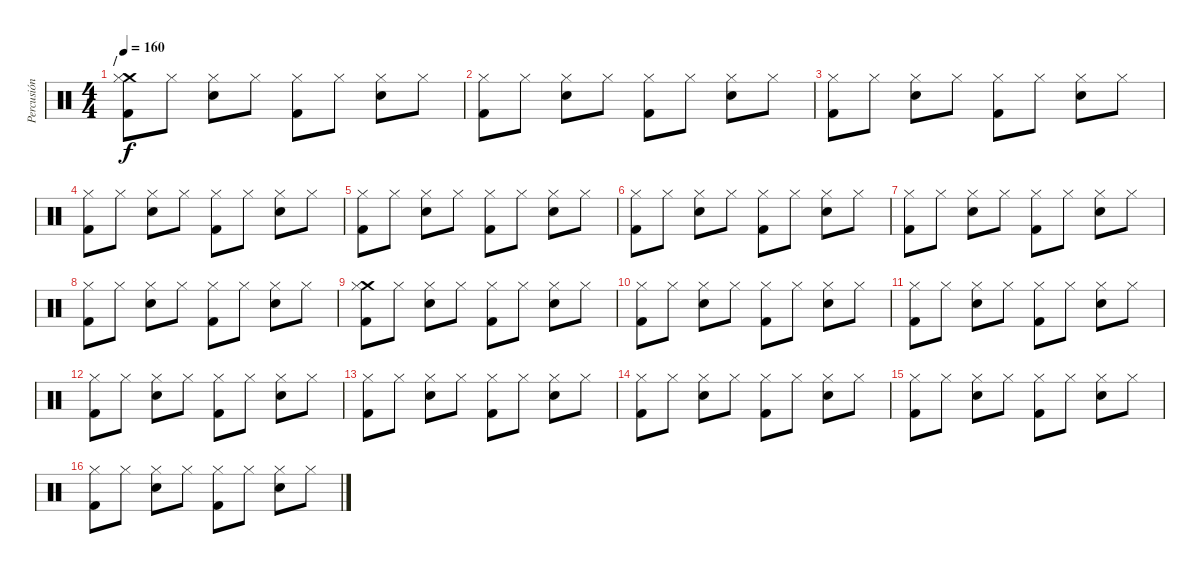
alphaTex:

\track ("Percusión" "Percusión") {instrument percussion}
\staff {score}
\articulation defaults
\ts (4 4)
\section ("" "/")
\tempo 160
\clef neutral
\ks c
("Crash medium (hit)" "Hi-Hat (closed)" "Kick (hit) 2").8{dy f} "Hi-Hat (closed)".8 ("Hi-Hat (closed)" "Snare (hit) 2").8 "Hi-Hat (closed)".8 ("Hi-Hat (closed)" "Kick (hit) 2").8 "Hi-Hat (closed)".8 ("Hi-Hat (closed)" "Snare (hit) 2").8 "Hi-Hat (closed)".8 |
("Hi-Hat (closed)" "Kick (hit) 2").8 "Hi-Hat (closed)".8 ("Hi-Hat (closed)" "Snare (hit) 2").8 "Hi-Hat (closed)".8 ("Hi-Hat (closed)" "Kick (hit) 2").8 "Hi-Hat (closed)".8 ("Hi-Hat (closed)" "Snare (hit) 2").8 "Hi-Hat (closed)".8 |
("Hi-Hat (closed)" "Kick (hit) 2").8 "Hi-Hat (closed)".8 ("Hi-Hat (closed)" "Snare (hit) 2").8 "Hi-Hat (closed)".8 ("Hi-Hat (closed)" "Kick (hit) 2").8 "Hi-Hat (closed)".8 ("Hi-Hat (closed)" "Snare (hit) 2").8 "Hi-Hat (closed)".8 |
("Hi-Hat (closed)" "Kick (hit) 2").8 "Hi-Hat (closed)".8 ("Hi-Hat (closed)" "Snare (hit) 2").8 "Hi-Hat (closed)".8 ("Hi-Hat (closed)" "Kick (hit) 2").8 "Hi-Hat (closed)".8 ("Hi-Hat (closed)" "Snare (hit) 2").8 "Hi-Hat (closed)".8 |
("Hi-Hat (closed)" "Kick (hit) 2").8 "Hi-Hat (closed)".8 ("Hi-Hat (closed)" "Snare (hit) 2").8 "Hi-Hat (closed)".8 ("Hi-Hat (closed)" "Kick (hit) 2").8 "Hi-Hat (closed)".8 ("Hi-Hat (closed)" "Snare (hit) 2").8 "Hi-Hat (closed)".8 |
("Hi-Hat (closed)" "Kick (hit) 2").8 "Hi-Hat (closed)".8 ("Hi-Hat (closed)" "Snare (hit) 2").8 "Hi-Hat (closed)".8 ("Hi-Hat (closed)" "Kick (hit) 2").8 "Hi-Hat (closed)".8 ("Hi-Hat (closed)" "Snare (hit) 2").8 "Hi-Hat (closed)".8 |
("Hi-Hat (closed)" "Kick (hit) 2").8 "Hi-Hat (closed)".8 ("Hi-Hat (closed)" "Snare (hit) 2").8 "Hi-Hat (closed)".8 ("Hi-Hat (closed)" "Kick (hit) 2").8 "Hi-Hat (closed)".8 ("Hi-Hat (closed)" "Snare (hit) 2").8 "Hi-Hat (closed)".8 |
("Hi-Hat (closed)" "Kick (hit) 2").8 "Hi-Hat (closed)".8 ("Hi-Hat (closed)" "Snare (hit) 2").8 "Hi-Hat (closed)".8 ("Hi-Hat (closed)" "Kick (hit) 2").8 "Hi-Hat (closed)".8 ("Hi-Hat (closed)" "Snare (hit) 2").8 "Hi-Hat (closed)".8 |
("Crash medium (hit)" "Hi-Hat (closed)" "Kick (hit) 2").8 "Hi-Hat (closed)".8 ("Hi-Hat (closed)" "Snare (hit) 2").8 "Hi-Hat (closed)".8 ("Hi-Hat (closed)" "Kick (hit) 2").8 "Hi-Hat (closed)".8 ("Hi-Hat (closed)" "Snare (hit) 2").8 "Hi-Hat (closed)".8 |
("Hi-Hat (closed)" "Kick (hit) 2").8 "Hi-Hat (closed)".8 ("Hi-Hat (closed)" "Snare (hit) 2").8 "Hi-Hat (closed)".8 ("Hi-Hat (closed)" "Kick (hit) 2").8 "Hi-Hat (closed)".8 ("Hi-Hat (closed)" "Snare (hit) 2").8 "Hi-Hat (closed)".8 |
("Hi-Hat (closed)" "Kick (hit) 2").8 "Hi-Hat (closed)".8 ("Hi-Hat (closed)" "Snare (hit) 2").8 "Hi-Hat (closed)".8 ("Hi-Hat (closed)" "Kick (hit) 2").8 "Hi-Hat (closed)".8 ("Hi-Hat (closed)" "Snare (hit) 2").8 "Hi-Hat (closed)".8 |
("Hi-Hat (closed)" "Kick (hit) 2").8 "Hi-Hat (closed)".8 ("Hi-Hat (closed)" "Snare (hit) 2").8 "Hi-Hat (closed)".8 ("Hi-Hat (closed)" "Kick (hit) 2").8 "Hi-Hat (closed)".8 ("Hi-Hat (closed)" "Snare (hit) 2").8 "Hi-Hat (closed)".8 |
("Hi-Hat (closed)" "Kick (hit) 2").8 "Hi-Hat (closed)".8 ("Hi-Hat (closed)" "Snare (hit) 2").8 "Hi-Hat (closed)".8 ("Hi-Hat (closed)" "Kick (hit) 2").8 "Hi-Hat (closed)".8 ("Hi-Hat (closed)" "Snare (hit) 2").8 "Hi-Hat (closed)".8 |
("Hi-Hat (closed)" "Kick (hit) 2").8 "Hi-Hat (closed)".8 ("Hi-Hat (closed)" "Snare (hit) 2").8 "Hi-Hat (closed)".8 ("Hi-Hat (closed)" "Kick (hit) 2").8 "Hi-Hat (closed)".8 ("Hi-Hat (closed)" "Snare (hit) 2").8 "Hi-Hat (closed)".8 |
("Hi-Hat (closed)" "Kick (hit) 2").8 "Hi-Hat (closed)".8 ("Hi-Hat (closed)" "Snare (hit) 2").8 "Hi-Hat (closed)".8 ("Hi-Hat (closed)" "Kick (hit) 2").8 "Hi-Hat (closed)".8 ("Hi-Hat (closed)" "Snare (hit) 2").8 "Hi-Hat (closed)".8 |
("Hi-Hat (closed)" "Kick (hit) 2").8 "Hi-Hat (closed)".8 ("Hi-Hat (closed)" "Snare (hit) 2").8 "Hi-Hat (closed)".8 ("Hi-Hat (closed)" "Kick (hit) 2").8 "Hi-Hat (closed)".8 ("Hi-Hat (closed)" "Snare (hit) 2").8 "Hi-Hat (closed)".8
